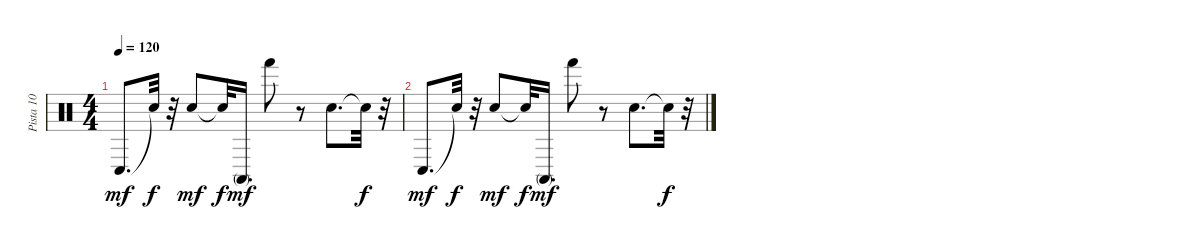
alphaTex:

\track ("Pista 10" "Pista 10") {instrument percussion}
\staff {score}
\articulation defaults
\ts (4 4)
\tempo 120
\clef neutral
\ks c "Conga low (hit)".8{d dy mf volume 4} "Snare (hit)"{t}.32{dy f}
r.32 "Hand Clap (hit)".8{dy mf volume 4} "Snare (hit)"{t}.32{dy f} "Conga high (mute)".16{d dy mf volume 3} "Hand (hit)".8{volume 3} r.8 "Hand Clap (hit)".8{d volume 2} "Snare (hit)"{t}.32{dy f} r.32 |
"Conga low (hit)".8{d dy mf volume 2} "Snare (hit)"{t}.32{dy f} r.32 "Hand Clap (hit)".8{dy mf volume 2} "Snare (hit)"{t}.32{dy f} "Conga high (mute)".16{d dy mf volume 1} "Hand (hit)".8{volume 1} r.8 "Hand Clap (hit)".8{d volume 0} "Snare (hit)"{t}.32{dy f} r.32
